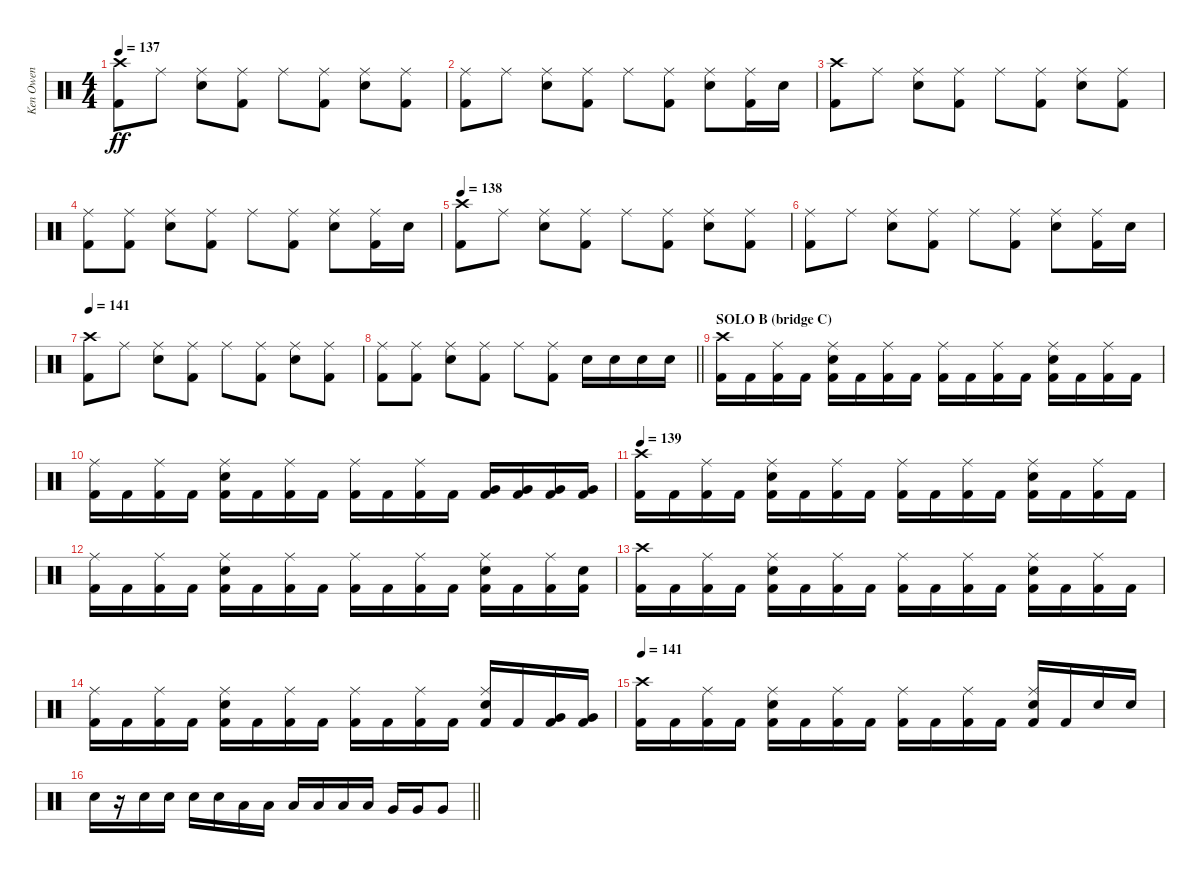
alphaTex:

\track ("Ken Owen" "Ken Owen") {instrument percussion}
\staff {score}
\articulation defaults
\ts (4 4)
\tempo 137
\clef neutral
\ks c
("Crash high (hit)" "Kick (hit) 2").8{dy ff} "Ride (middle)".8 ("Ride (middle)" "Snare (hit) 2").8 ("Ride (middle)" "Kick (hit) 2").8 "Ride (middle)".8 ("Ride (middle)" "Kick (hit) 2").8 ("Ride (middle)" "Snare (hit) 2").8 ("Ride (middle)" "Kick (hit) 2").8 |
("Ride (middle)" "Kick (hit) 2").8 "Ride (middle)".8 ("Ride (middle)" "Snare (hit) 2").8 ("Ride (middle)" "Kick (hit) 2").8 "Ride (middle)".8 ("Ride (middle)" "Kick (hit) 2").8 ("Ride (middle)" "Snare (hit) 2").8 ("Ride (middle)" "Kick (hit) 2").16 "Snare (hit) 2".16 |
("Crash high (hit)" "Kick (hit) 2").8 "Ride (middle)".8 ("Ride (middle)" "Snare (hit) 2").8 ("Ride (middle)" "Kick (hit) 2").8 "Ride (middle)".8 ("Ride (middle)" "Kick (hit) 2").8 ("Ride (middle)" "Snare (hit) 2").8 ("Ride (middle)" "Kick (hit) 2").8 |
("Ride (middle)" "Kick (hit) 2").8 ("Ride (middle)" "Kick (hit) 2").8 ("Ride (middle)" "Snare (hit) 2").8 ("Ride (middle)" "Kick (hit) 2").8 "Ride (middle)".8 ("Ride (middle)" "Kick (hit) 2").8 ("Ride (middle)" "Snare (hit) 2").8 ("Ride (middle)" "Kick (hit) 2").16 "Snare (hit) 2".16 |
\tempo 138
("Crash high (hit)" "Kick (hit) 2").8 "Ride (middle)".8 ("Ride (middle)" "Snare (hit) 2").8 ("Ride (middle)" "Kick (hit) 2").8 "Ride (middle)".8 ("Ride (middle)" "Kick (hit) 2").8 ("Ride (middle)" "Snare (hit) 2").8 ("Ride (middle)" "Kick (hit) 2").8 |
("Ride (middle)" "Kick (hit) 2").8 "Ride (middle)".8 ("Ride (middle)" "Snare (hit) 2").8 ("Ride (middle)" "Kick (hit) 2").8 "Ride (middle)".8 ("Ride (middle)" "Kick (hit) 2").8 ("Ride (middle)" "Snare (hit) 2").8 ("Ride (middle)" "Kick (hit) 2").16 "Snare (hit) 2".16 |
\tempo 141
("Crash high (hit)" "Kick (hit) 2").8 "Ride (middle)".8 ("Ride (middle)" "Snare (hit) 2").8 ("Ride (middle)" "Kick (hit) 2").8 "Ride (middle)".8 ("Ride (middle)" "Kick (hit) 2").8 ("Ride (middle)" "Snare (hit) 2").8 ("Ride (middle)" "Kick (hit) 2").8 |
\barLineRight lightlight
("Ride (middle)" "Kick (hit) 2").8 ("Ride (middle)" "Kick (hit) 2").8 ("Ride (middle)" "Snare (hit) 2").8 ("Ride (middle)" "Kick (hit) 2").8 "Ride (middle)".8 ("Ride (middle)" "Kick (hit) 2").8 "Snare (hit) 2".16 "Snare (hit) 2".16 "Snare (hit) 2".16 "Snare (hit) 2".16 |
\section ("" "SOLO B (bridge C)")
("Crash high (hit)" "Kick (hit) 2").16 "Kick (hit) 2".16 ("Ride (middle)" "Kick (hit) 2").16 "Kick (hit) 2".16 ("Ride (middle)" "Snare (hit) 2" "Kick (hit) 2").16 "Kick (hit) 2".16 ("Ride (middle)" "Kick (hit) 2").16 "Kick (hit) 2".16 ("Ride (middle)" "Kick (hit) 2").16 "Kick (hit) 2".16 ("Ride (middle)" "Kick (hit) 2").16 "Kick (hit) 2".16 ("Ride (middle)" "Snare (hit) 2" "Kick (hit) 2").16 "Kick (hit) 2".16 ("Ride (middle)" "Kick (hit) 2").16 "Kick (hit) 2".16 |
("Ride (middle)" "Kick (hit) 2").16 "Kick (hit) 2".16 ("Ride (middle)" "Kick (hit) 2").16 "Kick (hit) 2".16 ("Ride (middle)" "Snare (hit) 2" "Kick (hit) 2").16 "Kick (hit) 2".16 ("Ride (middle)" "Kick (hit) 2").16 "Kick (hit) 2".16 ("Ride (middle)" "Kick (hit) 2").16 "Kick (hit) 2".16 ("Ride (middle)" "Kick (hit) 2").16 "Kick (hit) 2".16 ("Very Low Tom (hit)" "Kick (hit) 2").16 ("Very Low Tom (hit)" "Kick (hit) 2").16 ("Very Low Tom (hit)" "Kick (hit) 2").16 ("Very Low Tom (hit)" "Kick (hit) 2").16 |
\tempo 139
("Crash high (hit)" "Kick (hit) 2").16 "Kick (hit) 2".16 ("Ride (middle)" "Kick (hit) 2").16 "Kick (hit) 2".16 ("Ride (middle)" "Snare (hit) 2" "Kick (hit) 2").16 "Kick (hit) 2".16 ("Ride (middle)" "Kick (hit) 2").16 "Kick (hit) 2".16 ("Ride (middle)" "Kick (hit) 2").16 "Kick (hit) 2".16 ("Ride (middle)" "Kick (hit) 2").16 "Kick (hit) 2".16 ("Ride (middle)" "Snare (hit) 2" "Kick (hit) 2").16 "Kick (hit) 2".16 ("Ride (middle)" "Kick (hit) 2").16 "Kick (hit) 2".16 |
("Ride (middle)" "Kick (hit) 2").16 "Kick (hit) 2".16 ("Ride (middle)" "Kick (hit) 2").16 "Kick (hit) 2".16 ("Ride (middle)" "Snare (hit) 2" "Kick (hit) 2").16 "Kick (hit) 2".16 ("Ride (middle)" "Kick (hit) 2").16 "Kick (hit) 2".16 ("Ride (middle)" "Kick (hit) 2").16 "Kick (hit) 2".16 ("Ride (middle)" "Kick (hit) 2").16 "Kick (hit) 2".16 ("Ride (middle)" "Snare (hit) 2" "Kick (hit) 2").16 "Kick (hit) 2".16 ("Ride (middle)" "Kick (hit) 2").16 ("Snare (hit) 2" "Kick (hit) 2").16 |
("Crash high (hit)" "Kick (hit) 2").16 "Kick (hit) 2".16 ("Ride (middle)" "Kick (hit) 2").16 "Kick (hit) 2".16 ("Ride (middle)" "Snare (hit) 2" "Kick (hit) 2").16 "Kick (hit) 2".16 ("Ride (middle)" "Kick (hit) 2").16 "Kick (hit) 2".16 ("Ride (middle)" "Kick (hit) 2").16 "Kick (hit) 2".16 ("Ride (middle)" "Kick (hit) 2").16 "Kick (hit) 2".16 ("Ride (middle)" "Snare (hit) 2" "Kick (hit) 2").16 "Kick (hit) 2".16 ("Ride (middle)" "Kick (hit) 2").16 "Kick (hit) 2".16 |
("Ride (middle)" "Kick (hit) 2").16 "Kick (hit) 2".16 ("Ride (middle)" "Kick (hit) 2").16 "Kick (hit) 2".16 ("Ride (middle)" "Snare (hit) 2" "Kick (hit) 2").16 "Kick (hit) 2".16 ("Ride (middle)" "Kick (hit) 2").16 "Kick (hit) 2".16 ("Ride (middle)" "Kick (hit) 2").16 "Kick (hit) 2".16 ("Ride (middle)" "Kick (hit) 2").16 "Kick (hit) 2".16 ("Ride (middle)" "Snare (hit) 2" "Kick (hit) 2").16 "Kick (hit) 2".16 ("Very Low Tom (hit)" "Kick (hit) 2").16 ("Very Low Tom (hit)" "Kick (hit) 2").16 |
\tempo 141
("Crash high (hit)" "Kick (hit) 2").16 "Kick (hit) 2".16 ("Ride (middle)" "Kick (hit) 2").16 "Kick (hit) 2".16 ("Ride (middle)" "Snare (hit) 2" "Kick (hit) 2").16 "Kick (hit) 2".16 ("Ride (middle)" "Kick (hit) 2").16 "Kick (hit) 2".16 ("Ride (middle)" "Kick (hit) 2").16 "Kick (hit) 2".16 ("Ride (middle)" "Kick (hit) 2").16 "Kick (hit) 2".16 ("Ride (middle)" "Snare (hit) 2" "Kick (hit) 2").16 "Kick (hit) 2".16 "Snare (hit) 2".16 "Snare (hit) 2".16 |
\barLineRight lightlight "Snare (hit) 2".16
r.16 "Snare (hit) 2".16 "Snare (hit) 2".16 "Snare (hit) 2".16 "Snare (hit) 2".16 "Low Tom (hit)".16 "Low Tom (hit)".16 "Low Tom (hit)".16 "Low Tom (hit)".16 "Low Tom (hit)".16 "Low Tom (hit)".16 "Very Low Tom (hit)".16 "Very Low Tom (hit)".16 "Very Low Tom (hit)".8
